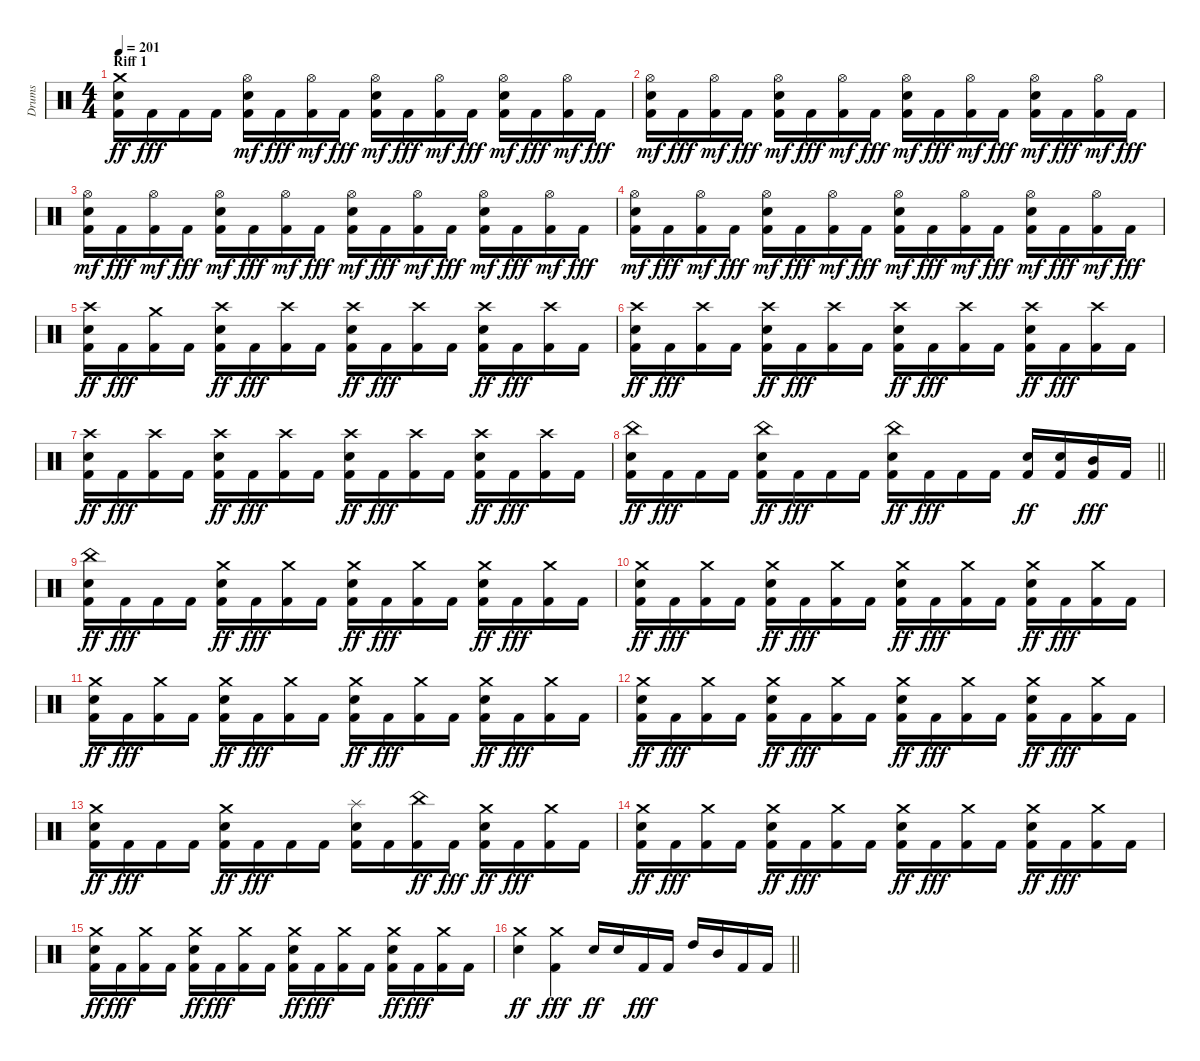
\track ("Drums" "Drums") {instrument percussion}
\staff {score}
\articulation defaults
\ts (4 4)
\section ("" "Riff 1")
\tempo 201
\clef neutral
\ks c
("Kick (hit) 2" "Snare (hit) 2" "Crash medium (hit)").16{dy ff} "Kick (hit) 2".16{dy fff} "Kick (hit) 2".16 "Kick (hit) 2".16 ("Kick (hit) 2" "Snare (hit) 2" "Hi-Hat (open)").16{dy mf} "Kick (hit) 2".16{dy fff} ("Kick (hit) 2" "Hi-Hat (open)").16{dy mf} "Kick (hit) 2".16{dy fff} ("Kick (hit) 2" "Snare (hit) 2" "Hi-Hat (open)").16{dy mf} "Kick (hit) 2".16{dy fff} ("Kick (hit) 2" "Hi-Hat (open)").16{dy mf} "Kick (hit) 2".16{dy fff} ("Kick (hit) 2" "Snare (hit) 2" "Hi-Hat (open)").16{dy mf} "Kick (hit) 2".16{dy fff} ("Kick (hit) 2" "Hi-Hat (open)").16{dy mf} "Kick (hit) 2".16{dy fff} |
("Kick (hit) 2" "Snare (hit) 2" "Hi-Hat (open)").16{dy mf} "Kick (hit) 2".16{dy fff} ("Kick (hit) 2" "Hi-Hat (open)").16{dy mf} "Kick (hit) 2".16{dy fff} ("Kick (hit) 2" "Snare (hit) 2" "Hi-Hat (open)").16{dy mf} "Kick (hit) 2".16{dy fff} ("Kick (hit) 2" "Hi-Hat (open)").16{dy mf} "Kick (hit) 2".16{dy fff} ("Kick (hit) 2" "Snare (hit) 2" "Hi-Hat (open)").16{dy mf} "Kick (hit) 2".16{dy fff} ("Kick (hit) 2" "Hi-Hat (open)").16{dy mf} "Kick (hit) 2".16{dy fff} ("Kick (hit) 2" "Snare (hit) 2" "Hi-Hat (open)").16{dy mf} "Kick (hit) 2".16{dy fff} ("Kick (hit) 2" "Hi-Hat (open)").16{dy mf} "Kick (hit) 2".16{dy fff} |
("Kick (hit) 2" "Snare (hit) 2" "Hi-Hat (open)").16{dy mf} "Kick (hit) 2".16{dy fff} ("Kick (hit) 2" "Hi-Hat (open)").16{dy mf} "Kick (hit) 2".16{dy fff} ("Kick (hit) 2" "Snare (hit) 2" "Hi-Hat (open)").16{dy mf} "Kick (hit) 2".16{dy fff} ("Kick (hit) 2" "Hi-Hat (open)").16{dy mf} "Kick (hit) 2".16{dy fff} ("Kick (hit) 2" "Snare (hit) 2" "Hi-Hat (open)").16{dy mf} "Kick (hit) 2".16{dy fff} ("Kick (hit) 2" "Hi-Hat (open)").16{dy mf} "Kick (hit) 2".16{dy fff} ("Kick (hit) 2" "Snare (hit) 2" "Hi-Hat (open)").16{dy mf} "Kick (hit) 2".16{dy fff} ("Kick (hit) 2" "Hi-Hat (open)").16{dy mf} "Kick (hit) 2".16{dy fff} |
("Kick (hit) 2" "Snare (hit) 2" "Hi-Hat (open)").16{dy mf} "Kick (hit) 2".16{dy fff} ("Kick (hit) 2" "Hi-Hat (open)").16{dy mf} "Kick (hit) 2".16{dy fff} ("Kick (hit) 2" "Snare (hit) 2" "Hi-Hat (open)").16{dy mf} "Kick (hit) 2".16{dy fff} ("Kick (hit) 2" "Hi-Hat (open)").16{dy mf} "Kick (hit) 2".16{dy fff} ("Kick (hit) 2" "Snare (hit) 2" "Hi-Hat (open)").16{dy mf} "Kick (hit) 2".16{dy fff} ("Kick (hit) 2" "Hi-Hat (open)").16{dy mf} "Kick (hit) 2".16{dy fff} ("Kick (hit) 2" "Snare (hit) 2" "Hi-Hat (open)").16{dy mf} "Kick (hit) 2".16{dy fff} ("Kick (hit) 2" "Hi-Hat (open)").16{dy mf} "Kick (hit) 2".16{dy fff} |
("Kick (hit) 2" "Snare (hit) 2" "Crash high (hit)").16{dy ff} "Kick (hit) 2".16{dy fff} ("Kick (hit) 2" "Crash medium (hit)").16 "Kick (hit) 2".16 ("Kick (hit) 2" "Snare (hit) 2" "Crash high (hit)").16{dy ff} "Kick (hit) 2".16{dy fff} ("Kick (hit) 2" "Crash high (hit)").16 "Kick (hit) 2".16 ("Kick (hit) 2" "Snare (hit) 2" "Crash high (hit)").16{dy ff} "Kick (hit) 2".16{dy fff} ("Kick (hit) 2" "Crash high (hit)").16 "Kick (hit) 2".16 ("Kick (hit) 2" "Snare (hit) 2" "Crash high (hit)").16{dy ff} "Kick (hit) 2".16{dy fff} ("Kick (hit) 2" "Crash high (hit)").16 "Kick (hit) 2".16 |
("Kick (hit) 2" "Snare (hit) 2" "Crash high (hit)").16{dy ff} "Kick (hit) 2".16{dy fff} ("Kick (hit) 2" "Crash high (hit)").16 "Kick (hit) 2".16 ("Kick (hit) 2" "Snare (hit) 2" "Crash high (hit)").16{dy ff} "Kick (hit) 2".16{dy fff} ("Kick (hit) 2" "Crash high (hit)").16 "Kick (hit) 2".16 ("Kick (hit) 2" "Snare (hit) 2" "Crash high (hit)").16{dy ff} "Kick (hit) 2".16{dy fff} ("Kick (hit) 2" "Crash high (hit)").16 "Kick (hit) 2".16 ("Kick (hit) 2" "Snare (hit) 2" "Crash high (hit)").16{dy ff} "Kick (hit) 2".16{dy fff} ("Kick (hit) 2" "Crash high (hit)").16 "Kick (hit) 2".16 |
("Kick (hit) 2" "Snare (hit) 2" "Crash high (hit)").16{dy ff} "Kick (hit) 2".16{dy fff} ("Kick (hit) 2" "Crash high (hit)").16 "Kick (hit) 2".16 ("Kick (hit) 2" "Snare (hit) 2" "Crash high (hit)").16{dy ff} "Kick (hit) 2".16{dy fff} ("Kick (hit) 2" "Crash high (hit)").16 "Kick (hit) 2".16 ("Kick (hit) 2" "Snare (hit) 2" "Crash high (hit)").16{dy ff} "Kick (hit) 2".16{dy fff} ("Kick (hit) 2" "Crash high (hit)").16 "Kick (hit) 2".16 ("Kick (hit) 2" "Snare (hit) 2" "Crash high (hit)").16{dy ff} "Kick (hit) 2".16{dy fff} ("Kick (hit) 2" "Crash high (hit)").16 "Kick (hit) 2".16 |
\barLineRight lightlight
("Kick (hit) 2" "Snare (hit) 2" "China (hit)").16{dy ff} "Kick (hit) 2".16{dy fff} "Kick (hit) 2".16 "Kick (hit) 2".16 ("Kick (hit) 2" "Snare (hit) 2" "China (hit)").16{dy ff} "Kick (hit) 2".16{dy fff} "Kick (hit) 2".16 "Kick (hit) 2".16 ("Kick (hit) 2" "Snare (hit) 2" "China (hit)").16{dy ff} "Kick (hit) 2".16{dy fff} "Kick (hit) 2".16 "Kick (hit) 2".16 ("Kick (hit) 2" "Snare (hit) 2").16{dy ff} ("Kick (hit) 2" "Snare (hit) 2").16 ("Kick (hit) 2" "Mid Tom (hit)").16{dy fff} "Kick (hit) 2".16 |
("Kick (hit) 2" "Snare (hit) 2" "China (hit)").16{dy ff} "Kick (hit) 2".16{dy fff} "Kick (hit) 2".16 "Kick (hit) 2".16 ("Kick (hit) 2" "Snare (hit) 2" "Crash medium (hit)").16{dy ff} "Kick (hit) 2".16{dy fff} ("Kick (hit) 2" "Crash medium (hit)").16 "Kick (hit) 2".16 ("Kick (hit) 2" "Snare (hit) 2" "Crash medium (hit)").16{dy ff} "Kick (hit) 2".16{dy fff} ("Kick (hit) 2" "Crash medium (hit)").16 "Kick (hit) 2".16 ("Kick (hit) 2" "Snare (hit) 2" "Crash medium (hit)").16{dy ff} "Kick (hit) 2".16{dy fff} ("Kick (hit) 2" "Crash medium (hit)").16 "Kick (hit) 2".16 |
("Kick (hit) 2" "Snare (hit) 2" "Crash medium (hit)").16{dy ff} "Kick (hit) 2".16{dy fff} ("Kick (hit) 2" "Crash medium (hit)").16 "Kick (hit) 2".16 ("Kick (hit) 2" "Snare (hit) 2" "Crash medium (hit)").16{dy ff} "Kick (hit) 2".16{dy fff} ("Kick (hit) 2" "Crash medium (hit)").16 "Kick (hit) 2".16 ("Kick (hit) 2" "Snare (hit) 2" "Crash medium (hit)").16{dy ff} "Kick (hit) 2".16{dy fff} ("Kick (hit) 2" "Crash medium (hit)").16 "Kick (hit) 2".16 ("Kick (hit) 2" "Snare (hit) 2" "Crash medium (hit)").16{dy ff} "Kick (hit) 2".16{dy fff} ("Kick (hit) 2" "Crash medium (hit)").16 "Kick (hit) 2".16 |
("Kick (hit) 2" "Snare (hit) 2" "Crash medium (hit)").16{dy ff} "Kick (hit) 2".16{dy fff} ("Kick (hit) 2" "Crash medium (hit)").16 "Kick (hit) 2".16 ("Kick (hit) 2" "Snare (hit) 2" "Crash medium (hit)").16{dy ff} "Kick (hit) 2".16{dy fff} ("Kick (hit) 2" "Crash medium (hit)").16 "Kick (hit) 2".16 ("Kick (hit) 2" "Snare (hit) 2" "Crash medium (hit)").16{dy ff} "Kick (hit) 2".16{dy fff} ("Kick (hit) 2" "Crash medium (hit)").16 "Kick (hit) 2".16 ("Kick (hit) 2" "Snare (hit) 2" "Crash medium (hit)").16{dy ff} "Kick (hit) 2".16{dy fff} ("Kick (hit) 2" "Crash medium (hit)").16 "Kick (hit) 2".16 |
("Kick (hit) 2" "Snare (hit) 2" "Crash medium (hit)").16{dy ff} "Kick (hit) 2".16{dy fff} ("Kick (hit) 2" "Crash medium (hit)").16 "Kick (hit) 2".16 ("Kick (hit) 2" "Snare (hit) 2" "Crash medium (hit)").16{dy ff} "Kick (hit) 2".16{dy fff} ("Kick (hit) 2" "Crash medium (hit)").16 "Kick (hit) 2".16 ("Kick (hit) 2" "Snare (hit) 2" "Crash medium (hit)").16{dy ff} "Kick (hit) 2".16{dy fff} ("Kick (hit) 2" "Crash medium (hit)").16 "Kick (hit) 2".16 ("Kick (hit) 2" "Snare (hit) 2" "Crash medium (hit)").16{dy ff} "Kick (hit) 2".16{dy fff} ("Kick (hit) 2" "Crash medium (hit)").16 "Kick (hit) 2".16 |
("Kick (hit) 2" "Snare (hit) 2" "Crash medium (hit)").16{dy ff} "Kick (hit) 2".16{dy fff} "Kick (hit) 2".16 "Kick (hit) 2".16 ("Kick (hit) 2" "Snare (hit) 2" "Crash medium (hit)").16{dy ff} "Kick (hit) 2".16{dy fff} "Kick (hit) 2".16 "Kick (hit) 2".16 ("Kick (hit) 2" "Snare (hit) 2" "Splash (hit)").16 "Kick (hit) 2".16 ("Kick (hit) 2" "China (hit)").16{dy ff} "Kick (hit) 2".16{dy fff} ("Kick (hit) 2" "Snare (hit) 2" "Crash medium (hit)").16{dy ff} "Kick (hit) 2".16{dy fff} ("Kick (hit) 2" "Crash medium (hit)").16 "Kick (hit) 2".16 |
("Kick (hit) 2" "Snare (hit) 2" "Crash medium (hit)").16{dy ff} "Kick (hit) 2".16{dy fff} ("Kick (hit) 2" "Crash medium (hit)").16 "Kick (hit) 2".16 ("Kick (hit) 2" "Snare (hit) 2" "Crash medium (hit)").16{dy ff} "Kick (hit) 2".16{dy fff} ("Kick (hit) 2" "Crash medium (hit)").16 "Kick (hit) 2".16 ("Kick (hit) 2" "Snare (hit) 2" "Crash medium (hit)").16{dy ff} "Kick (hit) 2".16{dy fff} ("Kick (hit) 2" "Crash medium (hit)").16 "Kick (hit) 2".16 ("Kick (hit) 2" "Snare (hit) 2" "Crash medium (hit)").16{dy ff} "Kick (hit) 2".16{dy fff} ("Kick (hit) 2" "Crash medium (hit)").16 "Kick (hit) 2".16 |
("Kick (hit) 2" "Snare (hit) 2" "Crash medium (hit)").16{dy ff} "Kick (hit) 2".16{dy fff} ("Kick (hit) 2" "Crash medium (hit)").16 "Kick (hit) 2".16 ("Kick (hit) 2" "Snare (hit) 2" "Crash medium (hit)").16{dy ff} "Kick (hit) 2".16{dy fff} ("Kick (hit) 2" "Crash medium (hit)").16 "Kick (hit) 2".16 ("Kick (hit) 2" "Snare (hit) 2" "Crash medium (hit)").16{dy ff} "Kick (hit) 2".16{dy fff} ("Kick (hit) 2" "Crash medium (hit)").16 "Kick (hit) 2".16 ("Kick (hit) 2" "Snare (hit) 2" "Crash medium (hit)").16{dy ff} "Kick (hit) 2".16{dy fff} ("Kick (hit) 2" "Crash medium (hit)").16 "Kick (hit) 2".16 |
\barLineRight lightlight
("Snare (hit) 2" "Crash medium (hit)").4{dy ff} ("Kick (hit) 2" "Crash medium (hit)").4{dy fff} "Snare (hit) 2".16{dy ff} "Snare (hit) 2".16 "Kick (hit) 2".16{dy fff} "Kick (hit) 2".16 "High Tom (hit)".16 "Mid Tom (hit)".16 "Kick (hit) 2".16 "Kick (hit) 2".16
